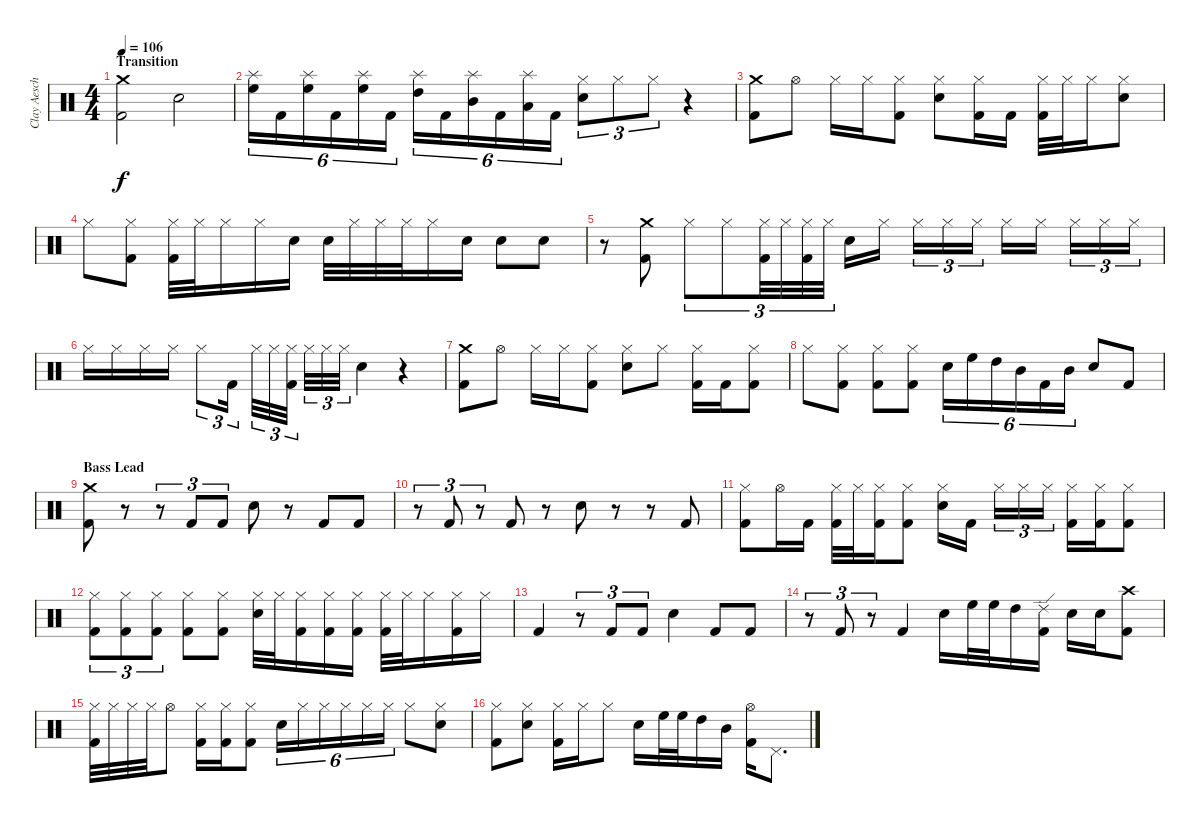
\track ("Clay Aeschliman" "Clay Aesch") {instrument percussion}
\staff {score}
\articulation defaults
\ts (4 4)
\section ("" "Transition")
\tempo 106
\clef neutral
\ks c
("Crash medium (hit)" "Kick (hit) 2").2{dy f} "Snare (hit) 2".2 |
("Splash (hit)" "High Floor Tom (hit)").16{tu (6 4)} "Kick (hit) 2".16{tu (6 4)} ("Splash (hit)" "High Floor Tom (hit)").16{tu (6 4)} "Kick (hit) 2".16{tu (6 4)} ("Splash (hit)" "High Floor Tom (hit)").16{tu (6 4)} "Kick (hit) 2".16{tu (6 4)} ("Splash (hit)" "High Tom (hit)").16{tu (6 4)} "Kick (hit) 2".16{tu (6 4)} ("Splash (hit)" "Mid Tom (hit)").16{tu (6 4)} "Kick (hit) 2".16{tu (6 4)} ("Splash (hit)" "Low Tom (hit)").16{tu (6 4)} "Kick (hit) 2".16{tu (6 4)} ("Hi-Hat (closed)" "Snare (hit) 2").8{tu (3 2)} "Hi-Hat (closed)".8{tu (3 2)} "Hi-Hat (closed)".8{tu (3 2)} r.4 |
("Crash medium (hit)" "Kick (hit) 2").8 "Hi-Hat (open)".8 "Hi-Hat (closed)".16 "Hi-Hat (closed)".16 ("Hi-Hat (closed)" "Kick (hit) 2").8 ("Hi-Hat (closed)" "Snare (hit) 2").8 ("Hi-Hat (closed)" "Kick (hit) 2").16 "Kick (hit) 2".16 ("Hi-Hat (closed)" "Kick (hit) 2").32 "Hi-Hat (closed)".32 "Hi-Hat (closed)".16 ("Hi-Hat (closed)" "Snare (hit) 2").8 |
"Hi-Hat (closed)".8 ("Hi-Hat (closed)" "Kick (hit) 2").8 ("Hi-Hat (closed)" "Kick (hit) 2").32 "Hi-Hat (closed)".32 "Hi-Hat (closed)".16 "Hi-Hat (closed)".16 "Snare (hit) 2".16 "Snare (hit) 2".32 "Hi-Hat (closed)".32 "Hi-Hat (closed)".32 "Hi-Hat (closed)".32 "Hi-Hat (closed)".16 "Snare (hit) 2".16 "Snare (hit) 2".8 "Snare (hit) 2".8 |
r.8 ("Crash medium (hit)" "Kick (hit) 2").8 "Hi-Hat (closed)".8{tu (3 2)} "Hi-Hat (closed)".8{tu (3 2)} ("Hi-Hat (closed)" "Kick (hit) 2").32{tu (3 2)} "Hi-Hat (closed)".32{tu (3 2)} ("Hi-Hat (closed)" "Kick (hit) 2").32{tu (3 2)} "Hi-Hat (closed)".32{tu (3 2)} "Snare (hit) 2".16 "Hi-Hat (closed)".16 "Hi-Hat (closed)".16{tu (3 2)} "Hi-Hat (closed)".16{tu (3 2)} "Hi-Hat (closed)".16{tu (3 2)} "Hi-Hat (closed)".16 "Hi-Hat (closed)".16 "Hi-Hat (closed)".16{tu (3 2)} "Hi-Hat (closed)".16{tu (3 2)} "Hi-Hat (closed)".16{tu (3 2)} |
"Hi-Hat (closed)".16 "Hi-Hat (closed)".16 "Hi-Hat (closed)".16 "Hi-Hat (closed)".16 "Hi-Hat (closed)".8{tu (3 2)} "Kick (hit) 2".16{tu (3 2)} "Hi-Hat (closed)".32{tu (3 2)} "Hi-Hat (closed)".32{tu (3 2)} ("Hi-Hat (closed)" "Kick (hit) 2").32{tu (3 2)} "Hi-Hat (closed)".32{tu (3 2)} "Hi-Hat (closed)".32{tu (3 2)} "Hi-Hat (closed)".32{tu (3 2)} "Snare (hit) 2".4 r.4 |
("Crash medium (hit)" "Kick (hit) 2").8 "Hi-Hat (open)".8 "Hi-Hat (closed)".16 "Hi-Hat (closed)".16 ("Hi-Hat (closed)" "Kick (hit) 2").8 ("Hi-Hat (closed)" "Snare (hit) 2").8 "Hi-Hat (closed)".8 ("Hi-Hat (closed)" "Kick (hit) 2").16 "Kick (hit) 2".16 ("Hi-Hat (closed)" "Kick (hit) 2").8 |
"Hi-Hat (closed)".8 ("Hi-Hat (closed)" "Kick (hit) 2").8 ("Hi-Hat (closed)" "Kick (hit) 2").8 ("Hi-Hat (closed)" "Kick (hit) 2").8 "Snare (hit) 2".16{tu (6 4)} "High Floor Tom (hit)".16{tu (6 4)} "High Tom (hit)".16{tu (6 4)} "Mid Tom (hit)".16{tu (6 4)} "Kick (hit) 2".16{tu (6 4)} "Mid Tom (hit)".16{tu (6 4)} "Snare (hit) 2".8 "Kick (hit) 2".8 |
\section ("" "Bass Lead")
("Crash medium (hit)" "Kick (hit) 2").8 r.8 r.8{tu (3 2)} "Kick (hit) 2".8{tu (3 2)} "Kick (hit) 2".8{tu (3 2)} "Snare (hit) 2".8 r.8 "Kick (hit) 2".8 "Kick (hit) 2".8 |
r.8{tu (3 2)} "Kick (hit) 2".8{tu (3 2)} r.8{tu (3 2)} "Kick (hit) 2".8 r.8 "Snare (hit) 2".8 r.8 r.8 "Kick (hit) 2".8 |
("Hi-Hat (closed)" "Kick (hit) 2").8 "Hi-Hat (open)".16 "Kick (hit) 2".16 ("Hi-Hat (closed)" "Kick (hit) 2").32 "Hi-Hat (closed)".32 ("Hi-Hat (closed)" "Kick (hit) 2").16 ("Hi-Hat (closed)" "Kick (hit) 2").8 ("Hi-Hat (closed)" "Snare (hit) 2").16 "Kick (hit) 2".16 "Hi-Hat (closed)".16{tu (3 2)} "Hi-Hat (closed)".16{tu (3 2)} "Hi-Hat (closed)".16{tu (3 2)} ("Hi-Hat (closed)" "Kick (hit) 2").16 ("Hi-Hat (closed)" "Kick (hit) 2").16 ("Hi-Hat (closed)" "Kick (hit) 2").8 |
("Hi-Hat (closed)" "Kick (hit) 2").8{tu (3 2)} ("Hi-Hat (closed)" "Kick (hit) 2").8{tu (3 2)} ("Hi-Hat (closed)" "Kick (hit) 2").8{tu (3 2)} ("Hi-Hat (closed)" "Kick (hit) 2").8 ("Hi-Hat (closed)" "Kick (hit) 2").8 ("Hi-Hat (closed)" "Snare (hit) 2").32 "Hi-Hat (closed)".32 ("Hi-Hat (closed)" "Kick (hit) 2").16 ("Hi-Hat (closed)" "Kick (hit) 2").16 ("Hi-Hat (closed)" "Kick (hit) 2").16 ("Hi-Hat (closed)" "Kick (hit) 2").32 "Hi-Hat (closed)".32 "Hi-Hat (closed)".16 ("Hi-Hat (closed)" "Kick (hit) 2").16 "Hi-Hat (closed)".16 |
"Kick (hit) 2".4 r.8{tu (3 2)} "Kick (hit) 2".8{tu (3 2)} "Kick (hit) 2".8{tu (3 2)} "Snare (hit) 2".4 "Kick (hit) 2".8 "Kick (hit) 2".8 |
r.8{tu (3 2)} "Kick (hit) 2".8{tu (3 2)} r.8{tu (3 2)} "Kick (hit) 2".4 "Snare (hit) 2".16 "High Floor Tom (hit)".32 "High Floor Tom (hit)".32 "High Tom (hit)".16 ("Ride (edge) 2" "Kick (hit) 2").16 "Snare (hit) 2".16 "Snare (hit) 2".16 ("Crash high (hit)" "Kick (hit) 2").8 |
("Hi-Hat (closed)" "Kick (hit) 2").32 "Hi-Hat (closed)".32 "Hi-Hat (closed)".32 "Hi-Hat (closed)".32 "Hi-Hat (open)".8 ("Hi-Hat (closed)" "Kick (hit) 2").16 ("Hi-Hat (closed)" "Kick (hit) 2").16 ("Hi-Hat (closed)" "Kick (hit) 2").8 "Snare (hit) 2".16{tu (6 4)} "Hi-Hat (closed)".16{tu (6 4)} "Hi-Hat (closed)".16{tu (6 4)} "Hi-Hat (closed)".16{tu (6 4)} "Hi-Hat (closed)".16{tu (6 4)} "Hi-Hat (closed)".16{tu (6 4)} "Hi-Hat (closed)".8 ("Hi-Hat (closed)" "Snare (hit) 2").8 |
("Hi-Hat (closed)" "Kick (hit) 2").8 ("Hi-Hat (closed)" "Snare (hit) 2").8 ("Hi-Hat (closed)" "Kick (hit) 2").16 "Hi-Hat (closed)".16 "Hi-Hat (closed)".8 "Snare (hit) 2".16 "High Floor Tom (hit)".32 "High Floor Tom (hit)".32 "High Tom (hit)".16 "Mid Tom (hit)".16 ("Hi-Hat (open)" "Kick (hit) 2").16 "Pedal Hi-Hat (hit)".8{d}
